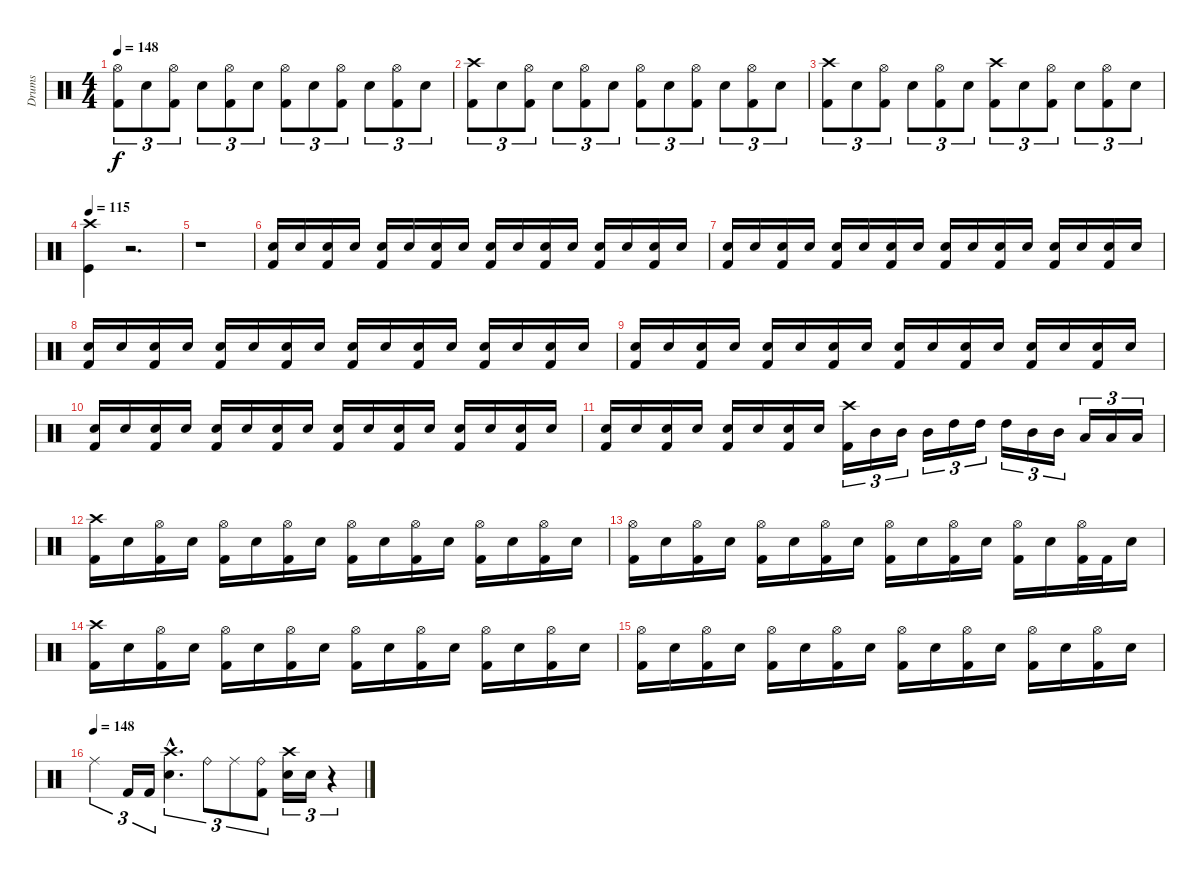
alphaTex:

\track ("Drums" "Drums") {instrument percussion}
\staff {score}
\articulation defaults
\ts (4 4)
\tempo 148
\clef neutral
\ks c
("Hi-Hat (open)" "Kick (hit) 2").8{tu (3 2) dy f} "Electric Snare (hit)".8{tu (3 2)} ("Hi-Hat (open)" "Kick (hit) 2").8{tu (3 2)} "Electric Snare (hit)".8{tu (3 2)} ("Hi-Hat (open)" "Kick (hit) 2").8{tu (3 2)} "Electric Snare (hit)".8{tu (3 2)} ("Hi-Hat (open)" "Kick (hit) 2").8{tu (3 2)} "Electric Snare (hit)".8{tu (3 2)} ("Hi-Hat (open)" "Kick (hit) 2").8{tu (3 2)} "Electric Snare (hit)".8{tu (3 2)} ("Hi-Hat (open)" "Kick (hit) 2").8{tu (3 2)} "Electric Snare (hit)".8{tu (3 2)} |
("Crash high (hit)" "Kick (hit) 2").8{tu (3 2)} "Electric Snare (hit)".8{tu (3 2)} ("Hi-Hat (open)" "Kick (hit) 2").8{tu (3 2)} "Electric Snare (hit)".8{tu (3 2)} ("Hi-Hat (open)" "Kick (hit) 2").8{tu (3 2)} "Electric Snare (hit)".8{tu (3 2)} ("Hi-Hat (open)" "Kick (hit) 2").8{tu (3 2)} "Electric Snare (hit)".8{tu (3 2)} ("Hi-Hat (open)" "Kick (hit) 2").8{tu (3 2)} "Electric Snare (hit)".8{tu (3 2)} ("Hi-Hat (open)" "Kick (hit) 2").8{tu (3 2)} "Electric Snare (hit)".8{tu (3 2)} |
("Crash high (hit)" "Kick (hit) 2").8{tu (3 2)} "Electric Snare (hit)".8{tu (3 2)} ("Hi-Hat (open)" "Kick (hit) 2").8{tu (3 2)} "Electric Snare (hit)".8{tu (3 2)} ("Hi-Hat (open)" "Kick (hit) 2").8{tu (3 2)} "Electric Snare (hit)".8{tu (3 2)} ("Crash high (hit)" "Kick (hit) 2").8{tu (3 2)} "Electric Snare (hit)".8{tu (3 2)} ("Hi-Hat (open)" "Kick (hit) 2").8{tu (3 2)} "Electric Snare (hit)".8{tu (3 2)} ("Hi-Hat (open)" "Kick (hit) 2").8{tu (3 2)} "Electric Snare (hit)".8{tu (3 2)} |
\tempo 115
("Crash high (hit)" "Kick (hit)").4 r.2{d} |
r.1 |
("Electric Snare (hit)" "Kick (hit) 2").16 "Electric Snare (hit)".16 ("Electric Snare (hit)" "Kick (hit) 2").16 "Electric Snare (hit)".16 ("Electric Snare (hit)" "Kick (hit) 2").16 "Electric Snare (hit)".16 ("Electric Snare (hit)" "Kick (hit) 2").16 "Electric Snare (hit)".16 ("Electric Snare (hit)" "Kick (hit) 2").16 "Electric Snare (hit)".16 ("Electric Snare (hit)" "Kick (hit) 2").16 "Electric Snare (hit)".16 ("Electric Snare (hit)" "Kick (hit) 2").16 "Electric Snare (hit)".16 ("Electric Snare (hit)" "Kick (hit) 2").16 "Electric Snare (hit)".16 |
("Electric Snare (hit)" "Kick (hit) 2").16 "Electric Snare (hit)".16 ("Electric Snare (hit)" "Kick (hit) 2").16 "Electric Snare (hit)".16 ("Electric Snare (hit)" "Kick (hit) 2").16 "Electric Snare (hit)".16 ("Electric Snare (hit)" "Kick (hit) 2").16 "Electric Snare (hit)".16 ("Electric Snare (hit)" "Kick (hit) 2").16 "Electric Snare (hit)".16 ("Electric Snare (hit)" "Kick (hit) 2").16 "Electric Snare (hit)".16 ("Electric Snare (hit)" "Kick (hit) 2").16 "Electric Snare (hit)".16 ("Electric Snare (hit)" "Kick (hit) 2").16 "Electric Snare (hit)".16 |
("Electric Snare (hit)" "Kick (hit) 2").16 "Electric Snare (hit)".16 ("Electric Snare (hit)" "Kick (hit) 2").16 "Electric Snare (hit)".16 ("Electric Snare (hit)" "Kick (hit) 2").16 "Electric Snare (hit)".16 ("Electric Snare (hit)" "Kick (hit) 2").16 "Electric Snare (hit)".16 ("Electric Snare (hit)" "Kick (hit) 2").16 "Electric Snare (hit)".16 ("Electric Snare (hit)" "Kick (hit) 2").16 "Electric Snare (hit)".16 ("Electric Snare (hit)" "Kick (hit) 2").16 "Electric Snare (hit)".16 ("Electric Snare (hit)" "Kick (hit) 2").16 "Electric Snare (hit)".16 |
("Electric Snare (hit)" "Kick (hit) 2").16 "Electric Snare (hit)".16 ("Electric Snare (hit)" "Kick (hit) 2").16 "Electric Snare (hit)".16 ("Electric Snare (hit)" "Kick (hit) 2").16 "Electric Snare (hit)".16 ("Electric Snare (hit)" "Kick (hit) 2").16 "Electric Snare (hit)".16 ("Electric Snare (hit)" "Kick (hit) 2").16 "Electric Snare (hit)".16 ("Electric Snare (hit)" "Kick (hit) 2").16 "Electric Snare (hit)".16 ("Electric Snare (hit)" "Kick (hit) 2").16 "Electric Snare (hit)".16 ("Electric Snare (hit)" "Kick (hit) 2").16 "Electric Snare (hit)".16 |
("Electric Snare (hit)" "Kick (hit) 2").16 "Electric Snare (hit)".16 ("Electric Snare (hit)" "Kick (hit) 2").16 "Electric Snare (hit)".16 ("Electric Snare (hit)" "Kick (hit) 2").16 "Electric Snare (hit)".16 ("Electric Snare (hit)" "Kick (hit) 2").16 "Electric Snare (hit)".16 ("Electric Snare (hit)" "Kick (hit) 2").16 "Electric Snare (hit)".16 ("Electric Snare (hit)" "Kick (hit) 2").16 "Electric Snare (hit)".16 ("Electric Snare (hit)" "Kick (hit) 2").16 "Electric Snare (hit)".16 ("Electric Snare (hit)" "Kick (hit) 2").16 "Electric Snare (hit)".16 |
("Electric Snare (hit)" "Kick (hit) 2").16 "Electric Snare (hit)".16 ("Electric Snare (hit)" "Kick (hit) 2").16 "Electric Snare (hit)".16 ("Electric Snare (hit)" "Kick (hit) 2").16 "Electric Snare (hit)".16 ("Electric Snare (hit)" "Kick (hit) 2").16 "Electric Snare (hit)".16 ("Crash high (hit)" "Kick (hit) 2").16{tu (3 2)} "Mid Tom (hit)".16{tu (3 2)} "Mid Tom (hit)".16{tu (3 2)} "Mid Tom (hit)".16{tu (3 2)} "High Tom (hit)".16{tu (3 2)} "High Tom (hit)".16{tu (3 2)} "High Tom (hit)".16{tu (3 2)} "Mid Tom (hit)".16{tu (3 2)} "Mid Tom (hit)".16{tu (3 2)} "Low Tom (hit)".16{tu (3 2)} "Low Tom (hit)".16{tu (3 2)} "Low Tom (hit)".16{tu (3 2)} |
("Crash high (hit)" "Kick (hit) 2").16 "Electric Snare (hit)".16 ("Hi-Hat (open)" "Kick (hit) 2").16 "Electric Snare (hit)".16 ("Hi-Hat (open)" "Kick (hit) 2").16 "Electric Snare (hit)".16 ("Hi-Hat (open)" "Kick (hit) 2").16 "Electric Snare (hit)".16 ("Hi-Hat (open)" "Kick (hit) 2").16 "Electric Snare (hit)".16 ("Hi-Hat (open)" "Kick (hit) 2").16 "Electric Snare (hit)".16 ("Hi-Hat (open)" "Kick (hit) 2").16 "Electric Snare (hit)".16 ("Hi-Hat (open)" "Kick (hit) 2").16 "Electric Snare (hit)".16 |
("Hi-Hat (open)" "Kick (hit) 2").16 "Electric Snare (hit)".16 ("Hi-Hat (open)" "Kick (hit) 2").16 "Electric Snare (hit)".16 ("Hi-Hat (open)" "Kick (hit) 2").16 "Electric Snare (hit)".16 ("Hi-Hat (open)" "Kick (hit) 2").16 "Electric Snare (hit)".16 ("Hi-Hat (open)" "Kick (hit) 2").16 "Electric Snare (hit)".16 ("Hi-Hat (open)" "Kick (hit) 2").16 "Electric Snare (hit)".16 ("Hi-Hat (open)" "Kick (hit) 2").16 "Electric Snare (hit)".16 ("Hi-Hat (open)" "Kick (hit) 2").32 "Kick (hit) 2".32 "Electric Snare (hit)".16 |
("Crash high (hit)" "Kick (hit) 2").16 "Electric Snare (hit)".16 ("Hi-Hat (open)" "Kick (hit) 2").16 "Electric Snare (hit)".16 ("Hi-Hat (open)" "Kick (hit) 2").16 "Electric Snare (hit)".16 ("Hi-Hat (open)" "Kick (hit) 2").16 "Electric Snare (hit)".16 ("Hi-Hat (open)" "Kick (hit) 2").16 "Electric Snare (hit)".16 ("Hi-Hat (open)" "Kick (hit) 2").16 "Electric Snare (hit)".16 ("Hi-Hat (open)" "Kick (hit) 2").16 "Electric Snare (hit)".16 ("Hi-Hat (open)" "Kick (hit) 2").16 "Electric Snare (hit)".16 |
("Hi-Hat (open)" "Kick (hit) 2").16 "Electric Snare (hit)".16 ("Hi-Hat (open)" "Kick (hit) 2").16 "Electric Snare (hit)".16 ("Hi-Hat (open)" "Kick (hit) 2").16 "Electric Snare (hit)".16 ("Hi-Hat (open)" "Kick (hit) 2").16 "Electric Snare (hit)".16 ("Hi-Hat (open)" "Kick (hit) 2").16 "Electric Snare (hit)".16 ("Hi-Hat (open)" "Kick (hit) 2").16 "Electric Snare (hit)".16 ("Hi-Hat (open)" "Kick (hit) 2").16 "Electric Snare (hit)".16 ("Hi-Hat (open)" "Kick (hit) 2").16 "Electric Snare (hit)".16 |
\tempo (148)
"Ride (middle)".4{tu (3 2)} "Kick (hit) 2".16{tu (3 2)} "Kick (hit) 2".16{tu (3 2)} ("Crash high (hit)"{hac} "Electric Snare (hit)"{hac}).4{d tu (3 2)} "Ride (bell)".8{tu (3 2)} "Ride (middle)".8{tu (3 2)} ("Ride (bell)" "Kick (hit) 2").8{tu (3 2)} ("Crash high (hit)" "Electric Snare (hit)").16{tu (3 2)} "Electric Snare (hit)".16{tu (3 2)} r.4{tu (3 2)}
